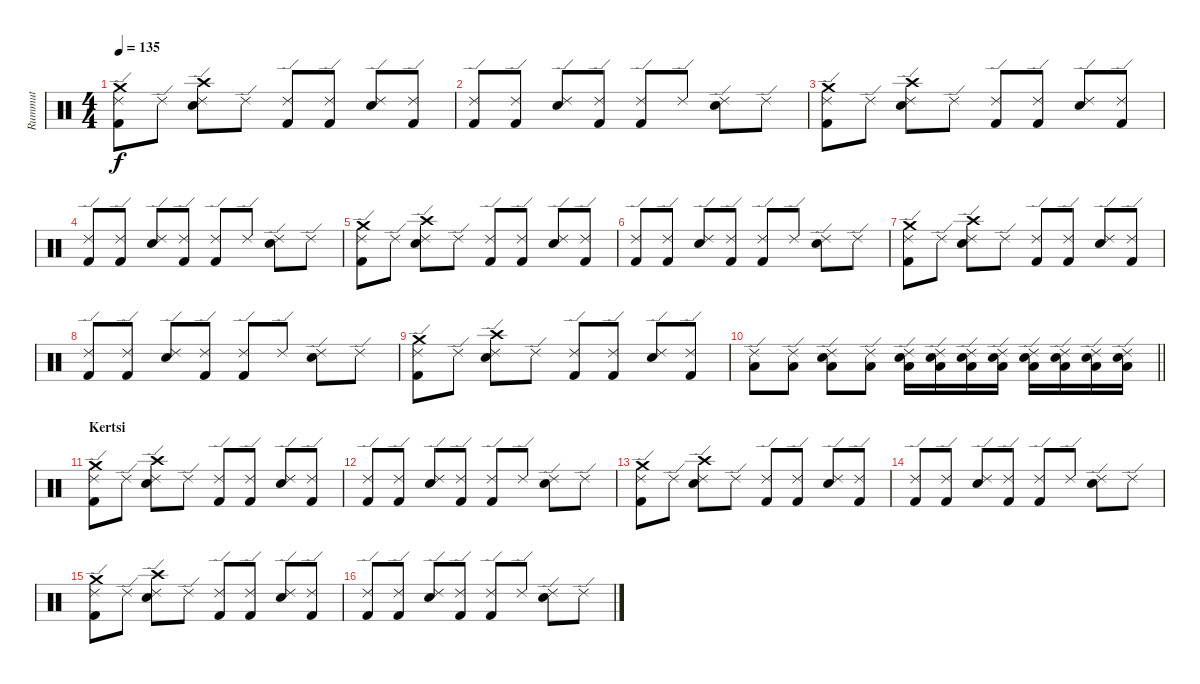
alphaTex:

\track ("Rummut" "Rummut") {instrument percussion}
\staff {score}
\articulation defaults
\ts (4 4)
\tempo 135
\clef neutral
\ks c
("Crash medium (hit)" "Ride (edge) 2" "Kick (hit) 2").8{dy f} "Ride (edge) 2".8 ("Crash high (hit)" "Ride (edge) 2" "Snare (hit) 2").8 "Ride (edge) 2".8 ("Ride (edge) 2" "Kick (hit) 2").8 ("Ride (edge) 2" "Kick (hit) 2").8 ("Ride (edge) 2" "Snare (hit) 2").8 ("Ride (edge) 2" "Kick (hit) 2").8 |
("Ride (edge) 2" "Kick (hit) 2").8 ("Ride (edge) 2" "Kick (hit) 2").8 ("Ride (edge) 2" "Snare (hit) 2").8 ("Ride (edge) 2" "Kick (hit) 2").8 ("Ride (edge) 2" "Kick (hit) 2").8 "Ride (edge) 2".8 ("Ride (edge) 2" "Snare (hit) 2").8 "Ride (edge) 2".8 |
("Crash medium (hit)" "Ride (edge) 2" "Kick (hit) 2").8 "Ride (edge) 2".8 ("Crash high (hit)" "Ride (edge) 2" "Snare (hit) 2").8 "Ride (edge) 2".8 ("Ride (edge) 2" "Kick (hit) 2").8 ("Ride (edge) 2" "Kick (hit) 2").8 ("Ride (edge) 2" "Snare (hit) 2").8 ("Ride (edge) 2" "Kick (hit) 2").8 |
("Ride (edge) 2" "Kick (hit) 2").8 ("Ride (edge) 2" "Kick (hit) 2").8 ("Ride (edge) 2" "Snare (hit) 2").8 ("Ride (edge) 2" "Kick (hit) 2").8 ("Ride (edge) 2" "Kick (hit) 2").8 "Ride (edge) 2".8 ("Ride (edge) 2" "Snare (hit) 2").8 "Ride (edge) 2".8 |
("Crash medium (hit)" "Ride (edge) 2" "Kick (hit) 2").8 "Ride (edge) 2".8 ("Crash high (hit)" "Ride (edge) 2" "Snare (hit) 2").8 "Ride (edge) 2".8 ("Ride (edge) 2" "Kick (hit) 2").8 ("Ride (edge) 2" "Kick (hit) 2").8 ("Ride (edge) 2" "Snare (hit) 2").8 ("Ride (edge) 2" "Kick (hit) 2").8 |
("Ride (edge) 2" "Kick (hit) 2").8 ("Ride (edge) 2" "Kick (hit) 2").8 ("Ride (edge) 2" "Snare (hit) 2").8 ("Ride (edge) 2" "Kick (hit) 2").8 ("Ride (edge) 2" "Kick (hit) 2").8 "Ride (edge) 2".8 ("Ride (edge) 2" "Snare (hit) 2").8 "Ride (edge) 2".8 |
("Crash medium (hit)" "Ride (edge) 2" "Kick (hit) 2").8 "Ride (edge) 2".8 ("Crash high (hit)" "Ride (edge) 2" "Snare (hit) 2").8 "Ride (edge) 2".8 ("Ride (edge) 2" "Kick (hit) 2").8 ("Ride (edge) 2" "Kick (hit) 2").8 ("Ride (edge) 2" "Snare (hit) 2").8 ("Ride (edge) 2" "Kick (hit) 2").8 |
("Ride (edge) 2" "Kick (hit) 2").8 ("Ride (edge) 2" "Kick (hit) 2").8 ("Ride (edge) 2" "Snare (hit) 2").8 ("Ride (edge) 2" "Kick (hit) 2").8 ("Ride (edge) 2" "Kick (hit) 2").8 "Ride (edge) 2".8 ("Ride (edge) 2" "Snare (hit) 2").8 "Ride (edge) 2".8 |
("Crash medium (hit)" "Ride (edge) 2" "Kick (hit) 2").8 "Ride (edge) 2".8 ("Crash high (hit)" "Ride (edge) 2" "Snare (hit) 2").8 "Ride (edge) 2".8 ("Ride (edge) 2" "Kick (hit) 2").8 ("Ride (edge) 2" "Kick (hit) 2").8 ("Ride (edge) 2" "Snare (hit) 2").8 ("Ride (edge) 2" "Kick (hit) 2").8 |
\barLineRight lightlight
("Ride (edge) 2" "Low Tom (hit)").8 ("Ride (edge) 2" "Low Tom (hit)").8 ("Ride (edge) 2" "Low Tom (hit)" "Snare (hit) 2").8 ("Ride (edge) 2" "Low Tom (hit)").8 ("Ride (edge) 2" "Low Tom (hit)" "Snare (hit) 2").16 ("Ride (edge) 2" "Low Tom (hit)" "Snare (hit) 2").16 ("Ride (edge) 2" "Low Tom (hit)" "Snare (hit) 2").16 ("Ride (edge) 2" "Low Tom (hit)" "Snare (hit) 2").16 ("Ride (edge) 2" "Snare (hit) 2" "Low Tom (hit)").16 ("Ride (edge) 2" "Snare (hit) 2" "Low Tom (hit)").16 ("Ride (edge) 2" "Snare (hit) 2" "Low Tom (hit)").16 ("Ride (edge) 2" "Snare (hit) 2" "Low Tom (hit)").16 |
\section ("" "Kertsi")
("Crash medium (hit)" "Ride (edge) 2" "Kick (hit) 2").8 "Ride (edge) 2".8 ("Crash high (hit)" "Ride (edge) 2" "Snare (hit) 2").8 "Ride (edge) 2".8 ("Ride (edge) 2" "Kick (hit) 2").8 ("Ride (edge) 2" "Kick (hit) 2").8 ("Ride (edge) 2" "Snare (hit) 2").8 ("Ride (edge) 2" "Kick (hit) 2").8 |
("Ride (edge) 2" "Kick (hit) 2").8 ("Ride (edge) 2" "Kick (hit) 2").8 ("Ride (edge) 2" "Snare (hit) 2").8 ("Ride (edge) 2" "Kick (hit) 2").8 ("Ride (edge) 2" "Kick (hit) 2").8 "Ride (edge) 2".8 ("Ride (edge) 2" "Snare (hit) 2").8 "Ride (edge) 2".8 |
("Crash medium (hit)" "Ride (edge) 2" "Kick (hit) 2").8 "Ride (edge) 2".8 ("Crash high (hit)" "Ride (edge) 2" "Snare (hit) 2").8 "Ride (edge) 2".8 ("Ride (edge) 2" "Kick (hit) 2").8 ("Ride (edge) 2" "Kick (hit) 2").8 ("Ride (edge) 2" "Snare (hit) 2").8 ("Ride (edge) 2" "Kick (hit) 2").8 |
("Ride (edge) 2" "Kick (hit) 2").8 ("Ride (edge) 2" "Kick (hit) 2").8 ("Ride (edge) 2" "Snare (hit) 2").8 ("Ride (edge) 2" "Kick (hit) 2").8 ("Ride (edge) 2" "Kick (hit) 2").8 "Ride (edge) 2".8 ("Ride (edge) 2" "Snare (hit) 2").8 "Ride (edge) 2".8 |
("Crash medium (hit)" "Ride (edge) 2" "Kick (hit) 2").8 "Ride (edge) 2".8 ("Crash high (hit)" "Ride (edge) 2" "Snare (hit) 2").8 "Ride (edge) 2".8 ("Ride (edge) 2" "Kick (hit) 2").8 ("Ride (edge) 2" "Kick (hit) 2").8 ("Ride (edge) 2" "Snare (hit) 2").8 ("Ride (edge) 2" "Kick (hit) 2").8 |
("Ride (edge) 2" "Kick (hit) 2").8 ("Ride (edge) 2" "Kick (hit) 2").8 ("Ride (edge) 2" "Snare (hit) 2").8 ("Ride (edge) 2" "Kick (hit) 2").8 ("Ride (edge) 2" "Kick (hit) 2").8 "Ride (edge) 2".8 ("Ride (edge) 2" "Snare (hit) 2").8 "Ride (edge) 2".8
